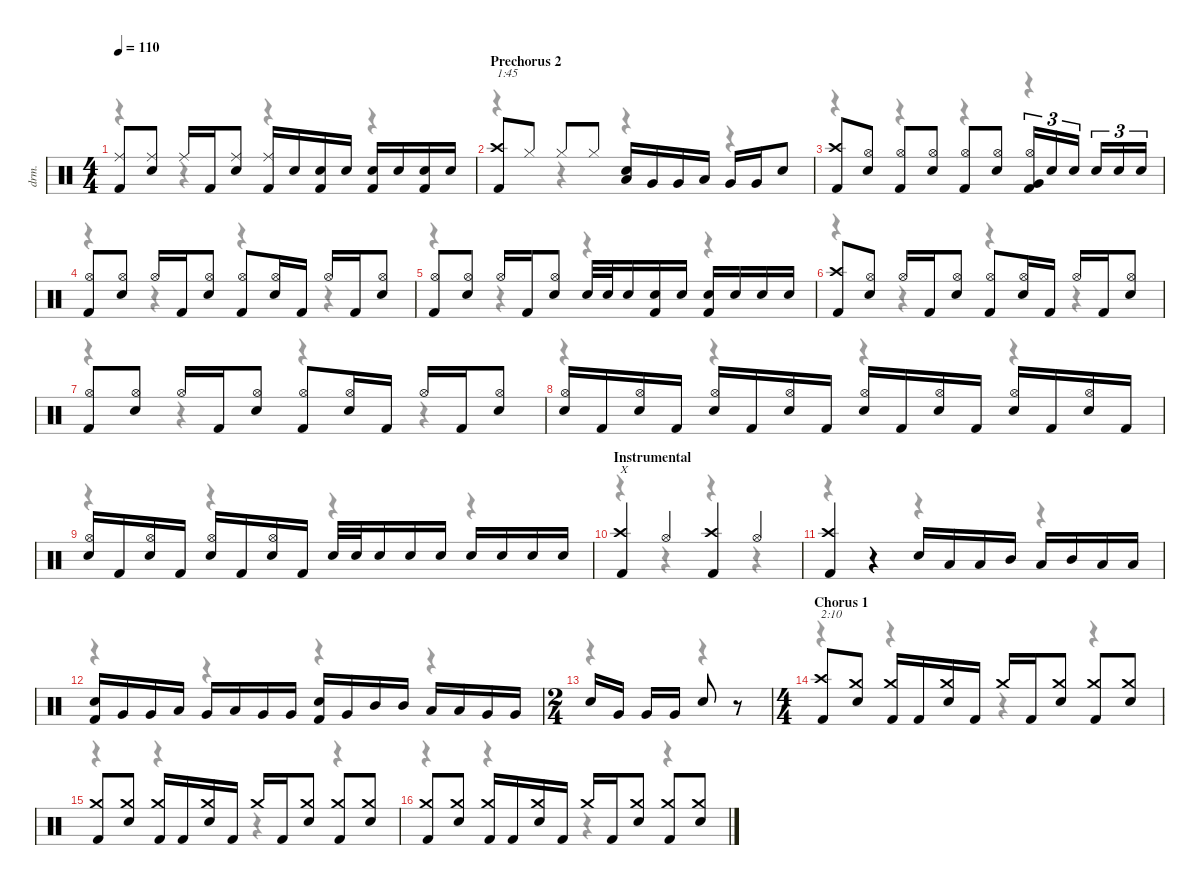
\defaultSystemsLayout 4
\hideDynamics
\bracketExtendMode nobrackets
\otherSystemsTrackNameOrientation horizontal
\track ("Drums" "drm.") {instrument percussion}
\staff {score}
\articulation defaults
\voice
\ts (4 4)
\tempo 110
\clef neutral
\ks c
("Ride (middle)" "Kick (hit) 2").8{dy f beam Up} ("Ride (middle)" "Snare (hit) 2").8{beam Up} "Ride (middle)".16{beam Up} "Kick (hit) 2".16{beam Up} ("Ride (middle)" "Snare (hit) 2").8{beam Up} ("Ride (middle)" "Kick (hit) 2").16{beam Up} "Snare (hit) 2".16{beam Up} ("Snare (hit) 2" "Kick (hit) 2").16{beam Up} "Snare (hit) 2".16{beam Up} ("Snare (hit) 2" "Kick (hit) 2").16{beam Up} "Snare (hit) 2".16{beam Up} ("Snare (hit) 2" "Kick (hit) 2").16{beam Up} "Snare (hit) 2".16{beam Up} |
\section ("" "Prechorus 2")
("Crash high (hit)" "Kick (hit) 2").8{txt "1:45" beam Up} "Hi-Hat (closed)".8{beam Up} "Hi-Hat (closed)".8{beam Up} "Hi-Hat (closed)".8{beam Up} ("Snare (hit) 2" "Low Tom (hit)").16{beam Up} "Very Low Tom (hit)".16{beam Up} "Very Low Tom (hit)".16{beam Up} "Low Tom (hit)".16{beam Up} "Very Low Tom (hit)".16{beam Up} "Very Low Tom (hit)".16{beam Up} "Snare (hit) 2".8{beam Up} |
("Crash high (hit)" "Kick (hit) 2").8{beam Up} ("Hi-Hat (open)" "Snare (hit) 2").8{beam Up} ("Hi-Hat (open)" "Kick (hit) 2").8{beam Up} ("Hi-Hat (open)" "Snare (hit) 2").8{beam Up} ("Hi-Hat (open)" "Kick (hit) 2").8{beam Up} ("Hi-Hat (open)" "Snare (hit) 2").8{beam Up} ("Hi-Hat (open)" "Very Low Tom (hit)" "Kick (hit) 2").16{tu (3 2) beam Up} "Snare (hit) 2".16{tu (3 2) beam Up} "Snare (hit) 2".16{tu (3 2) beam Up} "Snare (hit) 2".16{tu (3 2) beam Up} "Snare (hit) 2".16{tu (3 2) beam Up} "Snare (hit) 2".16{tu (3 2) beam Up} |
("Hi-Hat (open)" "Kick (hit) 2").8{beam Up} ("Hi-Hat (open)" "Snare (hit) 2").8{beam Up} "Hi-Hat (open)".16{beam Up} "Kick (hit) 2".16{beam Up} ("Hi-Hat (open)" "Snare (hit) 2").8{beam Up} ("Hi-Hat (open)" "Kick (hit) 2").8{beam Up} ("Hi-Hat (open)" "Snare (hit) 2").16{beam Up} "Kick (hit) 2".16{beam Up} "Hi-Hat (open)".16{beam Up} "Kick (hit) 2".16{beam Up} ("Hi-Hat (open)" "Snare (hit) 2").8{beam Up} |
("Hi-Hat (open)" "Kick (hit) 2").8{beam Up} ("Hi-Hat (open)" "Snare (hit) 2").8{beam Up} "Hi-Hat (open)".16{beam Up} "Kick (hit) 2".16{beam Up} ("Hi-Hat (open)" "Snare (hit) 2").8{beam Up} "Snare (hit) 2".32{beam Up} "Snare (hit) 2".32{beam Up} "Snare (hit) 2".16{beam Up} ("Snare (hit) 2" "Kick (hit) 2").16{beam Up} "Snare (hit) 2".16{beam Up} ("Snare (hit) 2" "Kick (hit) 2").16{beam Up} "Snare (hit) 2".16{beam Up} "Snare (hit) 2".16{beam Up} "Snare (hit) 2".16{beam Up} |
("Crash high (hit)" "Kick (hit) 2").8{beam Up} ("Hi-Hat (open)" "Snare (hit) 2").8{beam Up} "Hi-Hat (open)".16{beam Up} "Kick (hit) 2".16{beam Up} ("Hi-Hat (open)" "Snare (hit) 2").8{beam Up} ("Hi-Hat (open)" "Kick (hit) 2").8{beam Up} ("Hi-Hat (open)" "Snare (hit) 2").16{beam Up} "Kick (hit) 2".16{beam Up} "Hi-Hat (open)".16{beam Up} "Kick (hit) 2".16{beam Up} ("Hi-Hat (open)" "Snare (hit) 2").8{beam Up} |
("Hi-Hat (open)" "Kick (hit) 2").8{beam Up} ("Hi-Hat (open)" "Snare (hit) 2").8{beam Up} "Hi-Hat (open)".16{beam Up} "Kick (hit) 2".16{beam Up} ("Hi-Hat (open)" "Snare (hit) 2").8{beam Up} ("Hi-Hat (open)" "Kick (hit) 2").8{beam Up} ("Hi-Hat (open)" "Snare (hit) 2").16{beam Up} "Kick (hit) 2".16{beam Up} "Hi-Hat (open)".16{beam Up} "Kick (hit) 2".16{beam Up} ("Hi-Hat (open)" "Snare (hit) 2").8{beam Up} |
("Hi-Hat (open)" "Snare (hit) 2").16{beam Up} "Kick (hit) 2".16{beam Up} ("Hi-Hat (open)" "Snare (hit) 2").16{beam Up} "Kick (hit) 2".16{beam Up} ("Hi-Hat (open)" "Snare (hit) 2").16{beam Up} "Kick (hit) 2".16{beam Up} ("Hi-Hat (open)" "Snare (hit) 2").16{beam Up} "Kick (hit) 2".16{beam Up} ("Hi-Hat (open)" "Snare (hit) 2").16{beam Up} "Kick (hit) 2".16{beam Up} ("Hi-Hat (open)" "Snare (hit) 2").16{beam Up} "Kick (hit) 2".16{beam Up} ("Hi-Hat (open)" "Snare (hit) 2").16{beam Up} "Kick (hit) 2".16{beam Up} ("Hi-Hat (open)" "Snare (hit) 2").16{beam Up} "Kick (hit) 2".16{beam Up} |
("Hi-Hat (open)" "Snare (hit) 2").16{beam Up} "Kick (hit) 2".16{beam Up} ("Hi-Hat (open)" "Snare (hit) 2").16{beam Up} "Kick (hit) 2".16{beam Up} ("Hi-Hat (open)" "Snare (hit) 2").16{beam Up} "Kick (hit) 2".16{beam Up} ("Hi-Hat (open)" "Snare (hit) 2").16{beam Up} "Kick (hit) 2".16{beam Up} "Snare (hit) 2".32{beam Up} "Snare (hit) 2".32{beam Up} "Snare (hit) 2".16{beam Up} "Snare (hit) 2".16{beam Up} "Snare (hit) 2".16{beam Up} "Snare (hit) 2".16{beam Up} "Snare (hit) 2".16{beam Up} "Snare (hit) 2".16{beam Up} "Snare (hit) 2".16{beam Up} |
\section ("" "Instrumental")
("Crash high (hit)" "Kick (hit) 2").4{txt "X" beam Up} "Hi-Hat (open)".4{beam Up} ("Crash high (hit)" "Kick (hit) 2").4{beam Up} "Hi-Hat (open)".4{beam Up} |
("Crash high (hit)" "Kick (hit) 2").4{beam Up} r.4{beam Up} "Snare (hit) 2".16{beam Up} "Low Tom (hit)".16{beam Up} "Low Tom (hit)".16{beam Up} "Mid Tom (hit)".16{beam Up} "Low Tom (hit)".16{beam Up} "Mid Tom (hit)".16{beam Up} "Low Tom (hit)".16{beam Up} "Low Tom (hit)".16{beam Up} |
("Snare (hit) 2" "Kick (hit) 2").16{beam Up} "Very Low Tom (hit)".16{beam Up} "Very Low Tom (hit)".16{beam Up} "Low Tom (hit)".16{beam Up} "Very Low Tom (hit)".16{beam Up} "Low Tom (hit)".16{beam Up} "Very Low Tom (hit)".16{beam Up} "Very Low Tom (hit)".16{beam Up} ("Snare (hit) 2" "Kick (hit) 2").16{beam Up} "Very Low Tom (hit)".16{beam Up} "Mid Tom (hit)".16{beam Up} "Mid Tom (hit)".16{beam Up} "Low Tom (hit)".16{beam Up} "Low Tom (hit)".16{beam Up} "Very Low Tom (hit)".16{beam Up} "Very Low Tom (hit)".16{beam Up} |
\ts (2 4)
\beaming (8 1 1 1 1)
"Snare (hit) 2".16{beam Up} "Very Low Tom (hit)".16{beam Up} "Very Low Tom (hit)".16{beam Up} "Very Low Tom (hit)".16{beam Up} "Snare (hit) 2".8{beam Up} r.8{beam Up} |
\ts (4 4)
\beaming (8 2 2 2 2)
\section ("" "Chorus 1")
("Crash high (hit)" "Kick (hit) 2").8{txt "2:10" beam Up} ("Crash medium (hit)" "Snare (hit) 2").8{beam Up} ("Crash medium (hit)" "Kick (hit) 2").16{beam Up} "Kick (hit) 2".16{beam Up} ("Crash medium (hit)" "Snare (hit) 2").16{beam Up} "Kick (hit) 2".16{beam Up} "Crash medium (hit)".16{beam Up} "Kick (hit) 2".16{beam Up} ("Crash medium (hit)" "Snare (hit) 2").8{beam Up} ("Crash medium (hit)" "Kick (hit) 2").8{beam Up} ("Crash medium (hit)" "Snare (hit) 2").8{beam Up} |
("Crash medium (hit)" "Kick (hit) 2").8{beam Up} ("Crash medium (hit)" "Snare (hit) 2").8{beam Up} ("Crash medium (hit)" "Kick (hit) 2").16{beam Up} "Kick (hit) 2".16{beam Up} ("Crash medium (hit)" "Snare (hit) 2").16{beam Up} "Kick (hit) 2".16{beam Up} "Crash medium (hit)".16{beam Up} "Kick (hit) 2".16{beam Up} ("Crash medium (hit)" "Snare (hit) 2").8{beam Up} ("Crash medium (hit)" "Kick (hit) 2").8{beam Up} ("Crash medium (hit)" "Snare (hit) 2").8{beam Up} |
("Crash medium (hit)" "Kick (hit) 2").8{beam Up} ("Crash medium (hit)" "Snare (hit) 2").8{beam Up} ("Crash medium (hit)" "Kick (hit) 2").16{beam Up} "Kick (hit) 2".16{beam Up} ("Crash medium (hit)" "Snare (hit) 2").16{beam Up} "Kick (hit) 2".16{beam Up} "Crash medium (hit)".16{beam Up} "Kick (hit) 2".16{beam Up} ("Crash medium (hit)" "Snare (hit) 2").8{beam Up} ("Crash medium (hit)" "Kick (hit) 2").8{beam Up} ("Crash medium (hit)" "Snare (hit) 2").8{beam Up}
\voice
\clef neutral
\ottava regular
\simile none
\ks c
r.4{dy mf beam Down} r.4{beam Down} r.4{beam Down} r.4{beam Down} |
r.4{beam Down} r.4{beam Down} r.4{beam Down} r.4{beam Down} |
r.4{beam Down} r.4{beam Down} r.4{beam Down} r.4{beam Down} |
r.4{beam Down} r.4{beam Down} r.4{beam Down} r.4{beam Down} |
r.4{beam Down} r.4{beam Down} r.4{beam Down} r.4{beam Down} |
r.4{beam Down} r.4{beam Down} r.4{beam Down} r.4{beam Down} |
r.4{beam Down} r.4{beam Down} r.4{beam Down} r.4{beam Down} |
r.4{beam Down} r.4{beam Down} r.4{beam Down} r.4{beam Down} |
r.4{beam Down} r.4{beam Down} r.4{beam Down} r.4{beam Down} |
r.4{beam Down} r.4{beam Down} r.4{beam Down} r.4{beam Down} |
r.4{beam Down} r.4{beam Down} r.4{beam Down} r.4{beam Down} |
r.4{beam Down} r.4{beam Down} r.4{beam Down} r.4{beam Down} |
r.4{beam Down} r.4{beam Down} |
r.4{beam Down} r.4{beam Down} r.4{beam Down} r.4{beam Down} |
r.4{beam Down} r.4{beam Down} r.4{beam Down} r.4{beam Down} |
r.4{beam Down} r.4{beam Down} r.4{beam Down} r.4{beam Down}
